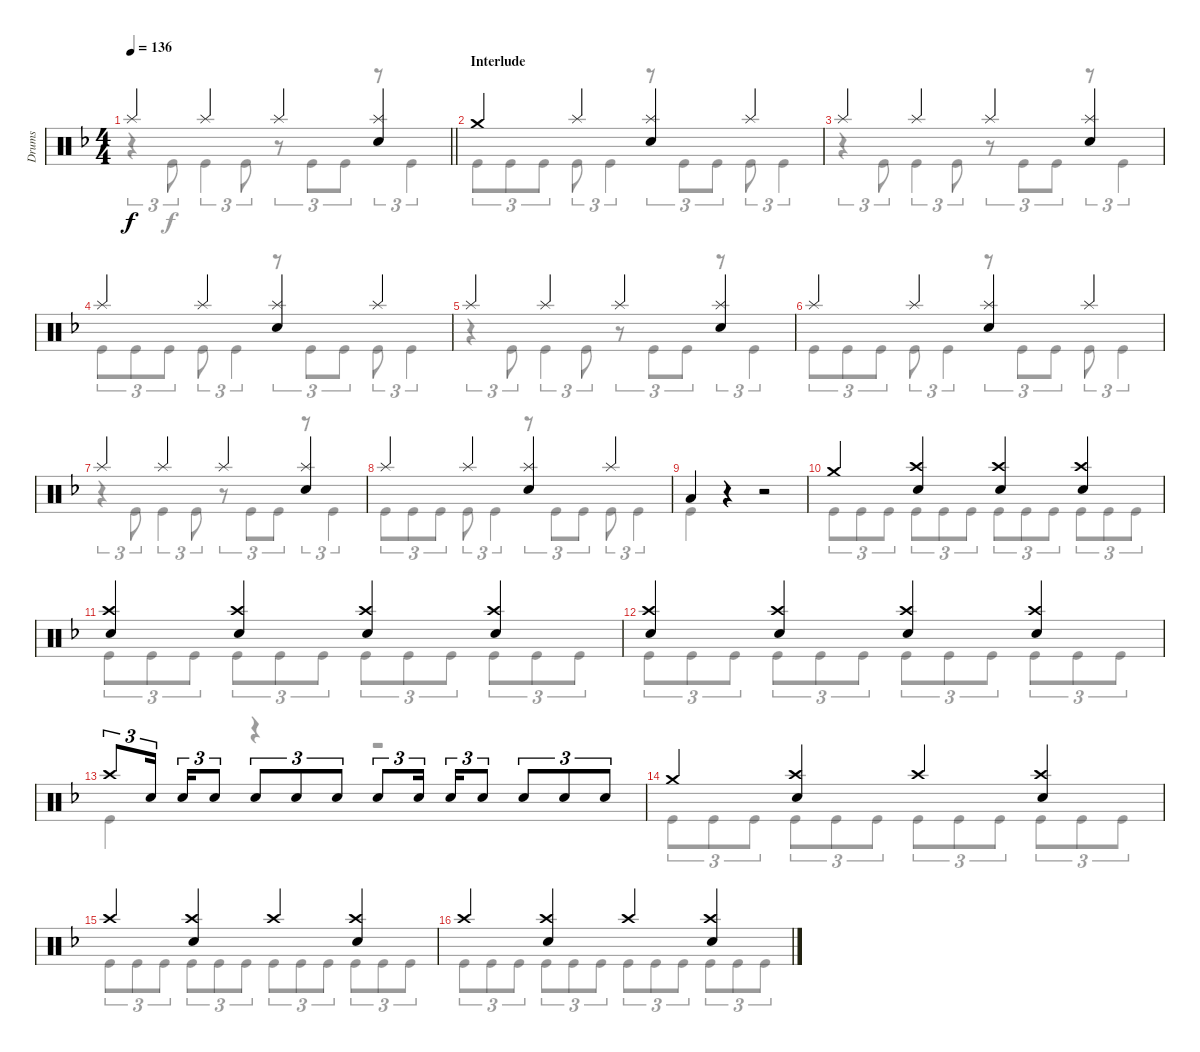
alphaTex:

\track ("Drums" "Drums") {instrument percussion}
\staff {score}
\articulation defaults
\voice
\ts (4 4)
\tempo 136
\clef neutral
\barLineRight lightlight
\ks dminor "Splash (hit)".4{dy f} "Splash (hit)".4 "Splash (hit)".4
("Splash (hit)" "Electric Snare (hit)").4 |
\section ("" "Interlude")
"Crash medium (hit)".4 "Splash (hit)".4 ("Splash (hit)" "Electric Snare (hit)").4 "Splash (hit)".4 |
"Splash (hit)".4 "Splash (hit)".4 "Splash (hit)".4 ("Splash (hit)" "Electric Snare (hit)").4 |
"Splash (hit)".4 "Splash (hit)".4 ("Splash (hit)" "Electric Snare (hit)").4 "Splash (hit)".4 |
"Splash (hit)".4 "Splash (hit)".4 "Splash (hit)".4 ("Splash (hit)" "Electric Snare (hit)").4 |
"Splash (hit)".4 "Splash (hit)".4 ("Splash (hit)" "Electric Snare (hit)").4 "Splash (hit)".4 |
"Splash (hit)".4 "Splash (hit)".4 "Splash (hit)".4 ("Splash (hit)" "Electric Snare (hit)").4 |
"Splash (hit)".4 "Splash (hit)".4 ("Splash (hit)" "Electric Snare (hit)").4 "Splash (hit)".4 |
"Low Tom (hit)".4 r.4 r.2 |
"Crash medium (hit)".4 ("Crash high (hit)" "Electric Snare (hit)").4 ("Crash high (hit)" "Electric Snare (hit)").4 ("Crash high (hit)" "Electric Snare (hit)").4 |
("Crash high (hit)" "Electric Snare (hit)").4 ("Crash high (hit)" "Electric Snare (hit)").4 ("Crash high (hit)" "Electric Snare (hit)").4 ("Crash high (hit)" "Electric Snare (hit)").4 |
("Crash high (hit)" "Electric Snare (hit)").4 ("Crash high (hit)" "Electric Snare (hit)").4 ("Crash high (hit)" "Electric Snare (hit)").4 ("Crash high (hit)" "Electric Snare (hit)").4 |
"Crash high (hit)".8{tu (3 2)} "Electric Snare (hit)".16{tu (3 2) beam splitsecondary} "Electric Snare (hit)".16{tu (3 2)} "Electric Snare (hit)".8{tu (3 2)} "Electric Snare (hit)".8{tu (3 2)} "Electric Snare (hit)".8{tu (3 2)} "Electric Snare (hit)".8{tu (3 2)} "Electric Snare (hit)".8{tu (3 2)} "Electric Snare (hit)".16{tu (3 2) beam splitsecondary} "Electric Snare (hit)".16{tu (3 2)} "Electric Snare (hit)".8{tu (3 2)} "Electric Snare (hit)".8{tu (3 2)} "Electric Snare (hit)".8{tu (3 2)} "Electric Snare (hit)".8{tu (3 2)} |
"Crash medium (hit)".4 ("Crash high (hit)" "Electric Snare (hit)").4 "Crash high (hit)".4 ("Crash high (hit)" "Electric Snare (hit)").4 |
"Crash high (hit)".4 ("Crash high (hit)" "Electric Snare (hit)").4 "Crash high (hit)".4 ("Crash high (hit)" "Electric Snare (hit)").4 |
"Crash high (hit)".4 ("Crash high (hit)" "Electric Snare (hit)").4 "Crash high (hit)".4 ("Crash high (hit)" "Electric Snare (hit)").4
\voice
\clef neutral
\ottava regular
\simile none
\barLineRight lightlight
\ks dminor
r.4{tu (3 2) dy f} "Kick (hit)".8{tu (3 2)} "Kick (hit)".4{tu (3 2)} "Kick (hit)".8{tu (3 2)} r.8{tu (3 2)} "Kick (hit)".8{tu (3 2)} "Kick (hit)".8{tu (3 2)} r.8{tu (3 2)} "Kick (hit)".4{tu (3 2)} |
"Kick (hit)".8{tu (3 2)} "Kick (hit)".8{tu (3 2)} "Kick (hit)".8{tu (3 2)} "Kick (hit)".8{tu (3 2)} "Kick (hit)".4{tu (3 2)} r.8{tu (3 2)} "Kick (hit)".8{tu (3 2)} "Kick (hit)".8{tu (3 2)} "Kick (hit)".8{tu (3 2)} "Kick (hit)".4{tu (3 2)} |
r.4{tu (3 2)} "Kick (hit)".8{tu (3 2)} "Kick (hit)".4{tu (3 2)} "Kick (hit)".8{tu (3 2)} r.8{tu (3 2)} "Kick (hit)".8{tu (3 2)} "Kick (hit)".8{tu (3 2)} r.8{tu (3 2)} "Kick (hit)".4{tu (3 2)} |
"Kick (hit)".8{tu (3 2)} "Kick (hit)".8{tu (3 2)} "Kick (hit)".8{tu (3 2)} "Kick (hit)".8{tu (3 2)} "Kick (hit)".4{tu (3 2)} r.8{tu (3 2)} "Kick (hit)".8{tu (3 2)} "Kick (hit)".8{tu (3 2)} "Kick (hit)".8{tu (3 2)} "Kick (hit)".4{tu (3 2)} |
r.4{tu (3 2)} "Kick (hit)".8{tu (3 2)} "Kick (hit)".4{tu (3 2)} "Kick (hit)".8{tu (3 2)} r.8{tu (3 2)} "Kick (hit)".8{tu (3 2)} "Kick (hit)".8{tu (3 2)} r.8{tu (3 2)} "Kick (hit)".4{tu (3 2)} |
"Kick (hit)".8{tu (3 2)} "Kick (hit)".8{tu (3 2)} "Kick (hit)".8{tu (3 2)} "Kick (hit)".8{tu (3 2)} "Kick (hit)".4{tu (3 2)} r.8{tu (3 2)} "Kick (hit)".8{tu (3 2)} "Kick (hit)".8{tu (3 2)} "Kick (hit)".8{tu (3 2)} "Kick (hit)".4{tu (3 2)} |
r.4{tu (3 2)} "Kick (hit)".8{tu (3 2)} "Kick (hit)".4{tu (3 2)} "Kick (hit)".8{tu (3 2)} r.8{tu (3 2)} "Kick (hit)".8{tu (3 2)} "Kick (hit)".8{tu (3 2)} r.8{tu (3 2)} "Kick (hit)".4{tu (3 2)} |
"Kick (hit)".8{tu (3 2)} "Kick (hit)".8{tu (3 2)} "Kick (hit)".8{tu (3 2)} "Kick (hit)".8{tu (3 2)} "Kick (hit)".4{tu (3 2)} r.8{tu (3 2)} "Kick (hit)".8{tu (3 2)} "Kick (hit)".8{tu (3 2)} "Kick (hit)".8{tu (3 2)} "Kick (hit)".4{tu (3 2)} |
"Kick (hit)".4 r.4 r.2 |
"Kick (hit)".8{tu (3 2)} "Kick (hit)".8{tu (3 2)} "Kick (hit)".8{tu (3 2)} "Kick (hit)".8{tu (3 2)} "Kick (hit)".8{tu (3 2)} "Kick (hit)".8{tu (3 2)} "Kick (hit)".8{tu (3 2)} "Kick (hit)".8{tu (3 2)} "Kick (hit)".8{tu (3 2)} "Kick (hit)".8{tu (3 2)} "Kick (hit)".8{tu (3 2)} "Kick (hit)".8{tu (3 2)} |
"Kick (hit)".8{tu (3 2)} "Kick (hit)".8{tu (3 2)} "Kick (hit)".8{tu (3 2)} "Kick (hit)".8{tu (3 2)} "Kick (hit)".8{tu (3 2)} "Kick (hit)".8{tu (3 2)} "Kick (hit)".8{tu (3 2)} "Kick (hit)".8{tu (3 2)} "Kick (hit)".8{tu (3 2)} "Kick (hit)".8{tu (3 2)} "Kick (hit)".8{tu (3 2)} "Kick (hit)".8{tu (3 2)} |
"Kick (hit)".8{tu (3 2)} "Kick (hit)".8{tu (3 2)} "Kick (hit)".8{tu (3 2)} "Kick (hit)".8{tu (3 2)} "Kick (hit)".8{tu (3 2)} "Kick (hit)".8{tu (3 2)} "Kick (hit)".8{tu (3 2)} "Kick (hit)".8{tu (3 2)} "Kick (hit)".8{tu (3 2)} "Kick (hit)".8{tu (3 2)} "Kick (hit)".8{tu (3 2)} "Kick (hit)".8{tu (3 2)} |
"Kick (hit)".4 r.4 r.2 |
"Kick (hit)".8{tu (3 2)} "Kick (hit)".8{tu (3 2)} "Kick (hit)".8{tu (3 2)} "Kick (hit)".8{tu (3 2)} "Kick (hit)".8{tu (3 2)} "Kick (hit)".8{tu (3 2)} "Kick (hit)".8{tu (3 2)} "Kick (hit)".8{tu (3 2)} "Kick (hit)".8{tu (3 2)} "Kick (hit)".8{tu (3 2)} "Kick (hit)".8{tu (3 2)} "Kick (hit)".8{tu (3 2)} |
"Kick (hit)".8{tu (3 2)} "Kick (hit)".8{tu (3 2)} "Kick (hit)".8{tu (3 2)} "Kick (hit)".8{tu (3 2)} "Kick (hit)".8{tu (3 2)} "Kick (hit)".8{tu (3 2)} "Kick (hit)".8{tu (3 2)} "Kick (hit)".8{tu (3 2)} "Kick (hit)".8{tu (3 2)} "Kick (hit)".8{tu (3 2)} "Kick (hit)".8{tu (3 2)} "Kick (hit)".8{tu (3 2)} |
"Kick (hit)".8{tu (3 2)} "Kick (hit)".8{tu (3 2)} "Kick (hit)".8{tu (3 2)} "Kick (hit)".8{tu (3 2)} "Kick (hit)".8{tu (3 2)} "Kick (hit)".8{tu (3 2)} "Kick (hit)".8{tu (3 2)} "Kick (hit)".8{tu (3 2)} "Kick (hit)".8{tu (3 2)} "Kick (hit)".8{tu (3 2)} "Kick (hit)".8{tu (3 2)} "Kick (hit)".8{tu (3 2)}
